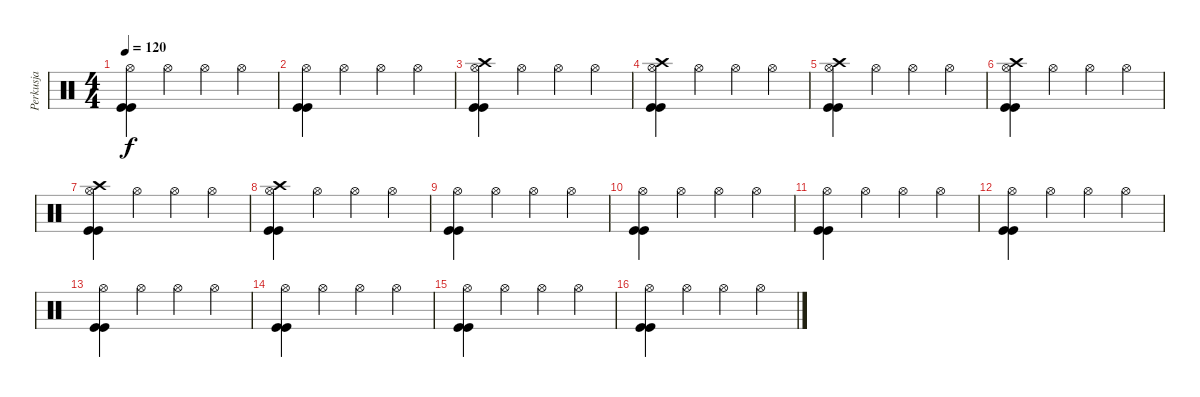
\track ("Perkusja" "Perkusja") {instrument percussion}
\staff
\articulation defaults
\ts (4 4)
\tempo 120
\clef neutral
\ks c
("Hi-Hat (open)" "Kick (hit)" "Kick (hit)").4{dy f} "Hi-Hat (open)".4 "Hi-Hat (open)".4 "Hi-Hat (open)".4 |
("Hi-Hat (open)" "Kick (hit)" "Kick (hit)").4 "Hi-Hat (open)".4 "Hi-Hat (open)".4 "Hi-Hat (open)".4 |
("Crash high (hit)" "Hi-Hat (open)" "Kick (hit)" "Kick (hit)").4 "Hi-Hat (open)".4 "Hi-Hat (open)".4 "Hi-Hat (open)".4 |
("Crash high (hit)" "Hi-Hat (open)" "Kick (hit)" "Kick (hit)").4 "Hi-Hat (open)".4 "Hi-Hat (open)".4 "Hi-Hat (open)".4 |
("Crash high (hit)" "Hi-Hat (open)" "Kick (hit)" "Kick (hit)").4 "Hi-Hat (open)".4 "Hi-Hat (open)".4 "Hi-Hat (open)".4 |
("Crash high (hit)" "Hi-Hat (open)" "Kick (hit)" "Kick (hit)").4 "Hi-Hat (open)".4 "Hi-Hat (open)".4 "Hi-Hat (open)".4 |
("Crash high (hit)" "Hi-Hat (open)" "Kick (hit)" "Kick (hit)").4 "Hi-Hat (open)".4 "Hi-Hat (open)".4 "Hi-Hat (open)".4 |
("Crash high (hit)" "Hi-Hat (open)" "Kick (hit)" "Kick (hit)").4 "Hi-Hat (open)".4 "Hi-Hat (open)".4 "Hi-Hat (open)".4 |
("Hi-Hat (open)" "Kick (hit)" "Kick (hit)").4 "Hi-Hat (open)".4 "Hi-Hat (open)".4 "Hi-Hat (open)".4 |
("Hi-Hat (open)" "Kick (hit)" "Kick (hit)").4 "Hi-Hat (open)".4 "Hi-Hat (open)".4 "Hi-Hat (open)".4 |
("Hi-Hat (open)" "Kick (hit)" "Kick (hit)").4 "Hi-Hat (open)".4 "Hi-Hat (open)".4 "Hi-Hat (open)".4 |
("Hi-Hat (open)" "Kick (hit)" "Kick (hit)").4 "Hi-Hat (open)".4 "Hi-Hat (open)".4 "Hi-Hat (open)".4 |
("Hi-Hat (open)" "Kick (hit)" "Kick (hit)").4 "Hi-Hat (open)".4 "Hi-Hat (open)".4 "Hi-Hat (open)".4 |
("Hi-Hat (open)" "Kick (hit)" "Kick (hit)").4 "Hi-Hat (open)".4 "Hi-Hat (open)".4 "Hi-Hat (open)".4 |
("Hi-Hat (open)" "Kick (hit)" "Kick (hit)").4 "Hi-Hat (open)".4 "Hi-Hat (open)".4 "Hi-Hat (open)".4 |
("Hi-Hat (open)" "Kick (hit)" "Kick (hit)").4 "Hi-Hat (open)".4 "Hi-Hat (open)".4 "Hi-Hat (open)".4
